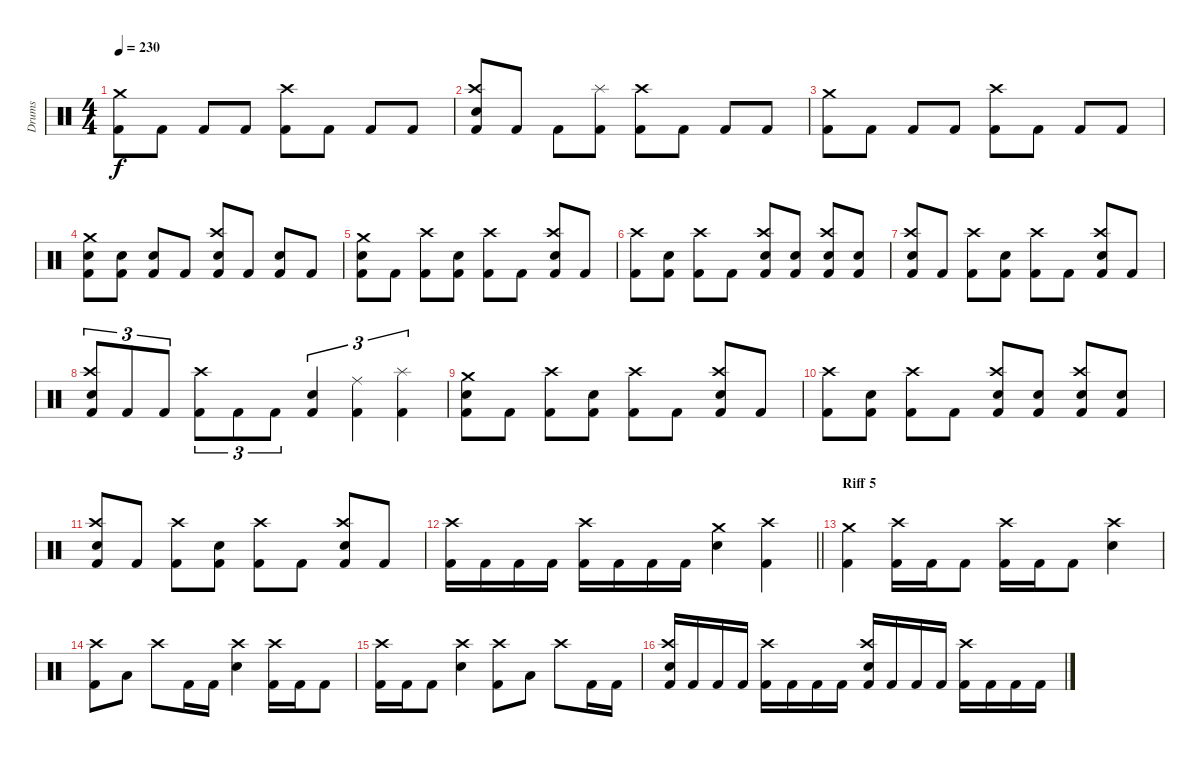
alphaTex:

\track ("Drums" "Drums") {instrument percussion}
\staff {score}
\articulation defaults
\ts (4 4)
\tempo 230
\clef neutral
\ks c
("Crash medium (hit)" "Kick (hit) 2").8{dy f} "Kick (hit) 2".8 "Kick (hit) 2".8 "Kick (hit) 2".8 ("Crash high (hit)" "Kick (hit) 2").8 "Kick (hit) 2".8 "Kick (hit) 2".8 "Kick (hit) 2".8 |
("Crash high (hit)" "Electric Snare (hit)" "Kick (hit) 2").8 "Kick (hit) 2".8 "Kick (hit) 2".8 ("Splash (hit)" "Kick (hit) 2").8 ("Crash high (hit)" "Kick (hit) 2").8 "Kick (hit) 2".8 "Kick (hit) 2".8 "Kick (hit) 2".8 |
("Crash medium (hit)" "Kick (hit) 2").8 "Kick (hit) 2".8 "Kick (hit) 2".8 "Kick (hit) 2".8 ("Crash high (hit)" "Kick (hit) 2").8 "Kick (hit) 2".8 "Kick (hit) 2".8 "Kick (hit) 2".8 |
("Crash medium (hit)" "Electric Snare (hit)" "Kick (hit) 2").8 ("Electric Snare (hit)" "Kick (hit) 2").8 ("Electric Snare (hit)" "Kick (hit) 2").8 "Kick (hit) 2".8 ("Crash high (hit)" "Electric Snare (hit)" "Kick (hit) 2").8 "Kick (hit) 2".8 ("Electric Snare (hit)" "Kick (hit) 2").8 "Kick (hit) 2".8 |
("Crash medium (hit)" "Kick (hit) 2" "Electric Snare (hit)").8 "Kick (hit) 2".8 ("Crash high (hit)" "Kick (hit) 2").8 ("Electric Snare (hit)" "Kick (hit) 2").8 ("Crash high (hit)" "Kick (hit) 2").8 "Kick (hit) 2".8 ("Crash high (hit)" "Kick (hit) 2" "Electric Snare (hit)").8 "Kick (hit) 2".8 |
("Kick (hit) 2" "Crash high (hit)").8 ("Kick (hit) 2" "Electric Snare (hit)").8 ("Kick (hit) 2" "Crash high (hit)").8 "Kick (hit) 2".8 ("Kick (hit) 2" "Crash high (hit)" "Electric Snare (hit)").8 ("Kick (hit) 2" "Electric Snare (hit)").8 ("Kick (hit) 2" "Crash high (hit)" "Electric Snare (hit)").8 ("Kick (hit) 2" "Electric Snare (hit)").8 |
("Crash high (hit)" "Kick (hit) 2" "Electric Snare (hit)").8 "Kick (hit) 2".8 ("Crash high (hit)" "Kick (hit) 2").8 ("Electric Snare (hit)" "Kick (hit) 2").8 ("Crash high (hit)" "Kick (hit) 2").8 "Kick (hit) 2".8 ("Crash high (hit)" "Kick (hit) 2" "Electric Snare (hit)").8 "Kick (hit) 2".8 |
("Electric Snare (hit)" "Kick (hit) 2" "Crash high (hit)").8{tu (3 2)} "Kick (hit) 2".8{tu (3 2)} "Kick (hit) 2".8{tu (3 2)} ("Crash high (hit)" "Kick (hit) 2").8{tu (3 2)} "Kick (hit) 2".8{tu (3 2)} "Kick (hit) 2".8{tu (3 2)} ("Electric Snare (hit)" "Kick (hit) 2").4{tu (3 2)} ("Ride (middle)" "Kick (hit) 2").4{tu (3 2)} ("Splash (hit)" "Kick (hit) 2").4{tu (3 2)} |
("Crash medium (hit)" "Kick (hit) 2" "Electric Snare (hit)").8 "Kick (hit) 2".8 ("Crash high (hit)" "Kick (hit) 2").8 ("Electric Snare (hit)" "Kick (hit) 2").8 ("Crash high (hit)" "Kick (hit) 2").8 "Kick (hit) 2".8 ("Crash high (hit)" "Kick (hit) 2" "Electric Snare (hit)").8 "Kick (hit) 2".8 |
("Kick (hit) 2" "Crash high (hit)").8 ("Kick (hit) 2" "Electric Snare (hit)").8 ("Kick (hit) 2" "Crash high (hit)").8 "Kick (hit) 2".8 ("Kick (hit) 2" "Crash high (hit)" "Electric Snare (hit)").8 ("Kick (hit) 2" "Electric Snare (hit)").8 ("Kick (hit) 2" "Crash high (hit)" "Electric Snare (hit)").8 ("Kick (hit) 2" "Electric Snare (hit)").8 |
("Crash high (hit)" "Kick (hit) 2" "Electric Snare (hit)").8 "Kick (hit) 2".8 ("Crash high (hit)" "Kick (hit) 2").8 ("Electric Snare (hit)" "Kick (hit) 2").8 ("Crash high (hit)" "Kick (hit) 2").8 "Kick (hit) 2".8 ("Crash high (hit)" "Kick (hit) 2" "Electric Snare (hit)").8 "Kick (hit) 2".8 |
\barLineRight lightlight
("Kick (hit) 2" "Crash high (hit)").16 "Kick (hit) 2".16 "Kick (hit) 2".16 "Kick (hit) 2".16 ("Kick (hit) 2" "Crash high (hit)").16 "Kick (hit) 2".16 "Kick (hit) 2".16 "Kick (hit) 2".16 ("Electric Snare (hit)" "Crash medium (hit)").4 ("Kick (hit) 2" "Crash high (hit)").4 |
\section ("" "Riff 5")
("Crash medium (hit)" "Kick (hit) 2").4 ("Crash high (hit)" "Kick (hit) 2").16 "Kick (hit) 2".16 "Kick (hit) 2".8 ("Crash high (hit)" "Kick (hit) 2").16 "Kick (hit) 2".16 "Kick (hit) 2".8 ("Crash high (hit)" "Electric Snare (hit)").4 |
("Crash high (hit)" "Kick (hit) 2").8 "Low Tom (hit)".8 "Crash high (hit)".8 "Kick (hit) 2".16 "Kick (hit) 2".16 ("Crash high (hit)" "Electric Snare (hit)").4 ("Crash high (hit)" "Kick (hit) 2").16 "Kick (hit) 2".16 "Kick (hit) 2".8 |
("Crash high (hit)" "Kick (hit) 2").16 "Kick (hit) 2".16 "Kick (hit) 2".8 ("Crash high (hit)" "Electric Snare (hit)").4 ("Crash high (hit)" "Kick (hit) 2").8 "Low Tom (hit)".8 "Crash high (hit)".8 "Kick (hit) 2".16 "Kick (hit) 2".16 |
("Electric Snare (hit)" "Crash high (hit)" "Kick (hit) 2").16 "Kick (hit) 2".16 "Kick (hit) 2".16 "Kick (hit) 2".16 ("Crash high (hit)" "Kick (hit) 2").16 "Kick (hit) 2".16 "Kick (hit) 2".16 "Kick (hit) 2".16 ("Electric Snare (hit)" "Crash high (hit)" "Kick (hit) 2").16 "Kick (hit) 2".16 "Kick (hit) 2".16 "Kick (hit) 2".16 ("Crash high (hit)" "Kick (hit) 2").16 "Kick (hit) 2".16 "Kick (hit) 2".16 "Kick (hit) 2".16
